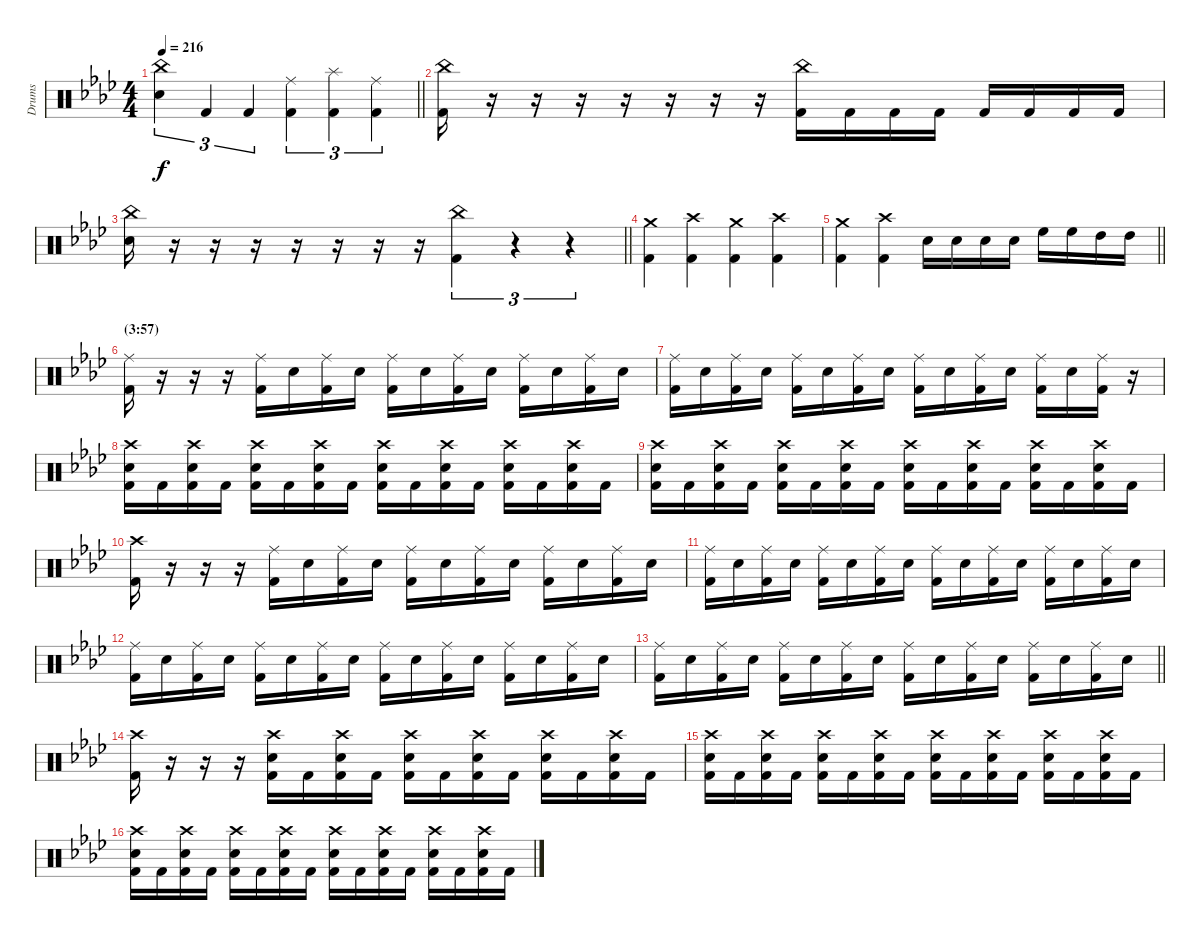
\bracketExtendMode groupsimilarinstruments
\otherSystemsTrackNameOrientation horizontal
\track ("Guyot Begin-Benoit" "Drums") {instrument percussion}
\staff {score}
\articulation defaults
\ts (4 4)
\tempo 216
\clef neutral
\barLineRight lightlight
\ks ab
("China (hit)"{acc forcenatural} "Snare (hit) 2"{acc forcenatural}).4{tu (3 2) dy f beam Down} "Kick (hit) 2"{acc forcenatural}.4{tu (3 2) beam Up} "Kick (hit) 2"{acc forcenatural}.4{tu (3 2) beam Up} ("Ride (middle)"{acc forcenatural} "Kick (hit) 2"{acc forcenatural}).4{tu (3 2) beam Down} ("Splash (hit)"{acc forcenatural} "Kick (hit) 2"{acc forcenatural}).4{tu (3 2) beam Down} ("Ride (middle)"{acc forcenatural} "Kick (hit) 2"{acc forcenatural}).4{tu (3 2) beam Down} |
("China (hit)"{acc forcenatural} "Kick (hit) 2"{acc forcenatural}).16{beam Down} r.16{beam Down} r.16{beam Down} r.16{beam Down} r.16{beam Down} r.16{beam Down} r.16{beam Down} r.16{beam Down} ("China (hit)"{acc forcenatural} "Kick (hit) 2"{acc forcenatural}).16{beam Down} "Kick (hit) 2"{acc forcenatural}.16{beam Down} "Kick (hit) 2"{acc forcenatural}.16{beam Down} "Kick (hit) 2"{acc forcenatural}.16{beam Down} "Kick (hit) 2"{acc forcenatural}.16{beam Up} "Kick (hit) 2"{acc forcenatural}.16{beam Up} "Kick (hit) 2"{acc forcenatural}.16{beam Up} "Kick (hit) 2"{acc forcenatural}.16{beam Up} |
\barLineRight lightlight
("China (hit)"{acc forcenatural} "Snare (hit) 2"{acc forcenatural}).16{beam Down} r.16{beam Down} r.16{beam Down} r.16{beam Down} r.16{beam Down} r.16{beam Down} r.16{beam Down} r.16{beam Down} ("China (hit)"{acc forcenatural} "Kick (hit) 2"{acc forcenatural}).4{tu (3 2) beam Down} r.4{tu (3 2) beam Down} r.4{tu (3 2) beam Down} |
("Crash medium (hit)"{acc forcenatural} "Kick (hit) 2"{acc forcenatural}).4{beam Down} ("Crash high (hit)"{acc forcenatural} "Kick (hit) 2"{acc forcenatural}).4{beam Down} ("Crash medium (hit)"{acc forcenatural} "Kick (hit) 2"{acc forcenatural}).4{beam Down} ("Crash high (hit)"{acc forcenatural} "Kick (hit) 2"{acc forcenatural}).4{beam Down} |
\barLineRight lightlight
("Crash medium (hit)"{acc forcenatural} "Kick (hit) 2"{acc forcenatural}).4{beam Down} ("Crash high (hit)"{acc forcenatural} "Kick (hit) 2"{acc forcenatural}).4{beam Down} "Snare (hit) 2"{acc forcenatural}.16{beam Down} "Snare (hit) 2"{acc forcenatural}.16{beam Down} "Snare (hit) 2"{acc forcenatural}.16{beam Down} "Snare (hit) 2"{acc forcenatural}.16{beam Down} "High Floor Tom (hit)"{acc forcenatural}.16{beam Down} "High Floor Tom (hit)"{acc forcenatural}.16{beam Down} "High Tom (hit)"{acc forcenatural}.16{beam Down} "High Tom (hit)"{acc forcenatural}.16{beam Down} |
\section ("" "(3:57)")
("Ride (middle)"{acc forcenatural} "Kick (hit) 2"{acc forcenatural}).16{beam Down} r.16{beam Down} r.16{beam Down} r.16{beam Down} ("Ride (middle)"{acc forcenatural} "Kick (hit) 2"{acc forcenatural}).16{beam Down} "Snare (hit) 2"{acc forcenatural}.16{beam Down} ("Ride (middle)"{acc forcenatural} "Kick (hit) 2"{acc forcenatural}).16{beam Down} "Snare (hit) 2"{acc forcenatural}.16{beam Down} ("Ride (middle)"{acc forcenatural} "Kick (hit) 2"{acc forcenatural}).16{beam Down} "Snare (hit) 2"{acc forcenatural}.16{beam Down} ("Ride (middle)"{acc forcenatural} "Kick (hit) 2"{acc forcenatural}).16{beam Down} "Snare (hit) 2"{acc forcenatural}.16{beam Down} ("Ride (middle)"{acc forcenatural} "Kick (hit) 2"{acc forcenatural}).16{beam Down} "Snare (hit) 2"{acc forcenatural}.16{beam Down} ("Ride (middle)"{acc forcenatural} "Kick (hit) 2"{acc forcenatural}).16{beam Down} "Snare (hit) 2"{acc forcenatural}.16{beam Down} |
("Ride (middle)"{acc forcenatural} "Kick (hit) 2"{acc forcenatural}).16{beam Down} "Snare (hit) 2"{acc forcenatural}.16{beam Down} ("Ride (middle)"{acc forcenatural} "Kick (hit) 2"{acc forcenatural}).16{beam Down} "Snare (hit) 2"{acc forcenatural}.16{beam Down} ("Ride (middle)"{acc forcenatural} "Kick (hit) 2"{acc forcenatural}).16{beam Down} "Snare (hit) 2"{acc forcenatural}.16{beam Down} ("Ride (middle)"{acc forcenatural} "Kick (hit) 2"{acc forcenatural}).16{beam Down} "Snare (hit) 2"{acc forcenatural}.16{beam Down} ("Ride (middle)"{acc forcenatural} "Kick (hit) 2"{acc forcenatural}).16{beam Down} "Snare (hit) 2"{acc forcenatural}.16{beam Down} ("Ride (middle)"{acc forcenatural} "Kick (hit) 2"{acc forcenatural}).16{beam Down} "Snare (hit) 2"{acc forcenatural}.16{beam Down} ("Ride (middle)"{acc forcenatural} "Kick (hit) 2"{acc forcenatural}).16{beam Down} "Snare (hit) 2"{acc forcenatural}.16{beam Down} ("Ride (middle)"{acc forcenatural} "Kick (hit) 2"{acc forcenatural}).16{beam Down} r.16{beam Down} |
("Crash high (hit)"{acc forcenatural} "Snare (hit) 2"{acc forcenatural} "Kick (hit) 2"{acc forcenatural}).16{beam Down} "Kick (hit) 2"{acc forcenatural}.16{beam Down} ("Crash high (hit)"{acc forcenatural} "Snare (hit) 2"{acc forcenatural} "Kick (hit) 2"{acc forcenatural}).16{beam Down} "Kick (hit) 2"{acc forcenatural}.16{beam Down} ("Crash high (hit)"{acc forcenatural} "Snare (hit) 2"{acc forcenatural} "Kick (hit) 2"{acc forcenatural}).16{beam Down} "Kick (hit) 2"{acc forcenatural}.16{beam Down} ("Crash high (hit)"{acc forcenatural} "Snare (hit) 2"{acc forcenatural} "Kick (hit) 2"{acc forcenatural}).16{beam Down} "Kick (hit) 2"{acc forcenatural}.16{beam Down} ("Crash high (hit)"{acc forcenatural} "Snare (hit) 2"{acc forcenatural} "Kick (hit) 2"{acc forcenatural}).16{beam Down} "Kick (hit) 2"{acc forcenatural}.16{beam Down} ("Crash high (hit)"{acc forcenatural} "Snare (hit) 2"{acc forcenatural} "Kick (hit) 2"{acc forcenatural}).16{beam Down} "Kick (hit) 2"{acc forcenatural}.16{beam Down} ("Crash high (hit)"{acc forcenatural} "Snare (hit) 2"{acc forcenatural} "Kick (hit) 2"{acc forcenatural}).16{beam Down} "Kick (hit) 2"{acc forcenatural}.16{beam Down} ("Crash high (hit)"{acc forcenatural} "Snare (hit) 2"{acc forcenatural} "Kick (hit) 2"{acc forcenatural}).16{beam Down} "Kick (hit) 2"{acc forcenatural}.16{beam Down} |
("Crash high (hit)"{acc forcenatural} "Snare (hit) 2"{acc forcenatural} "Kick (hit) 2"{acc forcenatural}).16{beam Down} "Kick (hit) 2"{acc forcenatural}.16{beam Down} ("Crash high (hit)"{acc forcenatural} "Snare (hit) 2"{acc forcenatural} "Kick (hit) 2"{acc forcenatural}).16{beam Down} "Kick (hit) 2"{acc forcenatural}.16{beam Down} ("Crash high (hit)"{acc forcenatural} "Snare (hit) 2"{acc forcenatural} "Kick (hit) 2"{acc forcenatural}).16{beam Down} "Kick (hit) 2"{acc forcenatural}.16{beam Down} ("Crash high (hit)"{acc forcenatural} "Snare (hit) 2"{acc forcenatural} "Kick (hit) 2"{acc forcenatural}).16{beam Down} "Kick (hit) 2"{acc forcenatural}.16{beam Down} ("Crash high (hit)"{acc forcenatural} "Snare (hit) 2"{acc forcenatural} "Kick (hit) 2"{acc forcenatural}).16{beam Down} "Kick (hit) 2"{acc forcenatural}.16{beam Down} ("Crash high (hit)"{acc forcenatural} "Snare (hit) 2"{acc forcenatural} "Kick (hit) 2"{acc forcenatural}).16{beam Down} "Kick (hit) 2"{acc forcenatural}.16{beam Down} ("Crash high (hit)"{acc forcenatural} "Snare (hit) 2"{acc forcenatural} "Kick (hit) 2"{acc forcenatural}).16{beam Down} "Kick (hit) 2"{acc forcenatural}.16{beam Down} ("Crash high (hit)"{acc forcenatural} "Snare (hit) 2"{acc forcenatural} "Kick (hit) 2"{acc forcenatural}).16{beam Down} "Kick (hit) 2"{acc forcenatural}.16{beam Down} |
("Crash high (hit)"{acc forcenatural} "Kick (hit) 2"{acc forcenatural}).16{beam Down} r.16{beam Down} r.16{beam Down} r.16{beam Down} ("Ride (middle)"{acc forcenatural} "Kick (hit) 2"{acc forcenatural}).16{beam Down} "Snare (hit) 2"{acc forcenatural}.16{beam Down} ("Ride (middle)"{acc forcenatural} "Kick (hit) 2"{acc forcenatural}).16{beam Down} "Snare (hit) 2"{acc forcenatural}.16{beam Down} ("Ride (middle)"{acc forcenatural} "Kick (hit) 2"{acc forcenatural}).16{beam Down} "Snare (hit) 2"{acc forcenatural}.16{beam Down} ("Ride (middle)"{acc forcenatural} "Kick (hit) 2"{acc forcenatural}).16{beam Down} "Snare (hit) 2"{acc forcenatural}.16{beam Down} ("Ride (middle)"{acc forcenatural} "Kick (hit) 2"{acc forcenatural}).16{beam Down} "Snare (hit) 2"{acc forcenatural}.16{beam Down} ("Ride (middle)"{acc forcenatural} "Kick (hit) 2"{acc forcenatural}).16{beam Down} "Snare (hit) 2"{acc forcenatural}.16{beam Down} |
("Ride (middle)"{acc forcenatural} "Kick (hit) 2"{acc forcenatural}).16{beam Down} "Snare (hit) 2"{acc forcenatural}.16{beam Down} ("Ride (middle)"{acc forcenatural} "Kick (hit) 2"{acc forcenatural}).16{beam Down} "Snare (hit) 2"{acc forcenatural}.16{beam Down} ("Ride (middle)"{acc forcenatural} "Kick (hit) 2"{acc forcenatural}).16{beam Down} "Snare (hit) 2"{acc forcenatural}.16{beam Down} ("Ride (middle)"{acc forcenatural} "Kick (hit) 2"{acc forcenatural}).16{beam Down} "Snare (hit) 2"{acc forcenatural}.16{beam Down} ("Ride (middle)"{acc forcenatural} "Kick (hit) 2"{acc forcenatural}).16{beam Down} "Snare (hit) 2"{acc forcenatural}.16{beam Down} ("Ride (middle)"{acc forcenatural} "Kick (hit) 2"{acc forcenatural}).16{beam Down} "Snare (hit) 2"{acc forcenatural}.16{beam Down} ("Ride (middle)"{acc forcenatural} "Kick (hit) 2"{acc forcenatural}).16{beam Down} "Snare (hit) 2"{acc forcenatural}.16{beam Down} ("Ride (middle)"{acc forcenatural} "Kick (hit) 2"{acc forcenatural}).16{beam Down} "Snare (hit) 2"{acc forcenatural}.16{beam Down} |
("Ride (middle)"{acc forcenatural} "Kick (hit) 2"{acc forcenatural}).16{beam Down} "Snare (hit) 2"{acc forcenatural}.16{beam Down} ("Ride (middle)"{acc forcenatural} "Kick (hit) 2"{acc forcenatural}).16{beam Down} "Snare (hit) 2"{acc forcenatural}.16{beam Down} ("Ride (middle)"{acc forcenatural} "Kick (hit) 2"{acc forcenatural}).16{beam Down} "Snare (hit) 2"{acc forcenatural}.16{beam Down} ("Ride (middle)"{acc forcenatural} "Kick (hit) 2"{acc forcenatural}).16{beam Down} "Snare (hit) 2"{acc forcenatural}.16{beam Down} ("Ride (middle)"{acc forcenatural} "Kick (hit) 2"{acc forcenatural}).16{beam Down} "Snare (hit) 2"{acc forcenatural}.16{beam Down} ("Ride (middle)"{acc forcenatural} "Kick (hit) 2"{acc forcenatural}).16{beam Down} "Snare (hit) 2"{acc forcenatural}.16{beam Down} ("Ride (middle)"{acc forcenatural} "Kick (hit) 2"{acc forcenatural}).16{beam Down} "Snare (hit) 2"{acc forcenatural}.16{beam Down} ("Ride (middle)"{acc forcenatural} "Kick (hit) 2"{acc forcenatural}).16{beam Down} "Snare (hit) 2"{acc forcenatural}.16{beam Down} |
\barLineRight lightlight
("Ride (middle)"{acc forcenatural} "Kick (hit) 2"{acc forcenatural}).16{beam Down} "Snare (hit) 2"{acc forcenatural}.16{beam Down} ("Ride (middle)"{acc forcenatural} "Kick (hit) 2"{acc forcenatural}).16{beam Down} "Snare (hit) 2"{acc forcenatural}.16{beam Down} ("Ride (middle)"{acc forcenatural} "Kick (hit) 2"{acc forcenatural}).16{beam Down} "Snare (hit) 2"{acc forcenatural}.16{beam Down} ("Ride (middle)"{acc forcenatural} "Kick (hit) 2"{acc forcenatural}).16{beam Down} "Snare (hit) 2"{acc forcenatural}.16{beam Down} ("Ride (middle)"{acc forcenatural} "Kick (hit) 2"{acc forcenatural}).16{beam Down} "Snare (hit) 2"{acc forcenatural}.16{beam Down} ("Ride (middle)"{acc forcenatural} "Kick (hit) 2"{acc forcenatural}).16{beam Down} "Snare (hit) 2"{acc forcenatural}.16{beam Down} ("Ride (middle)"{acc forcenatural} "Kick (hit) 2"{acc forcenatural}).16{beam Down} "Snare (hit) 2"{acc forcenatural}.16{beam Down} ("Ride (middle)"{acc forcenatural} "Kick (hit) 2"{acc forcenatural}).16{beam Down} "Snare (hit) 2"{acc forcenatural}.16{beam Down} |
\section ("" "")
("Crash high (hit)"{acc forcenatural} "Kick (hit) 2"{acc forcenatural}).16{beam Down} r.16{beam Down} r.16{beam Down} r.16{beam Down} ("Crash high (hit)"{acc forcenatural} "Snare (hit) 2"{acc forcenatural} "Kick (hit) 2"{acc forcenatural}).16{beam Down} "Kick (hit) 2"{acc forcenatural}.16{beam Down} ("Crash high (hit)"{acc forcenatural} "Snare (hit) 2"{acc forcenatural} "Kick (hit) 2"{acc forcenatural}).16{beam Down} "Kick (hit) 2"{acc forcenatural}.16{beam Down} ("Crash high (hit)"{acc forcenatural} "Snare (hit) 2"{acc forcenatural} "Kick (hit) 2"{acc forcenatural}).16{beam Down} "Kick (hit) 2"{acc forcenatural}.16{beam Down} ("Crash high (hit)"{acc forcenatural} "Snare (hit) 2"{acc forcenatural} "Kick (hit) 2"{acc forcenatural}).16{beam Down} "Kick (hit) 2"{acc forcenatural}.16{beam Down} ("Crash high (hit)"{acc forcenatural} "Snare (hit) 2"{acc forcenatural} "Kick (hit) 2"{acc forcenatural}).16{beam Down} "Kick (hit) 2"{acc forcenatural}.16{beam Down} ("Crash high (hit)"{acc forcenatural} "Snare (hit) 2"{acc forcenatural} "Kick (hit) 2"{acc forcenatural}).16{beam Down} "Kick (hit) 2"{acc forcenatural}.16{beam Down} |
("Crash high (hit)"{acc forcenatural} "Snare (hit) 2"{acc forcenatural} "Kick (hit) 2"{acc forcenatural}).16{beam Down} "Kick (hit) 2"{acc forcenatural}.16{beam Down} ("Crash high (hit)"{acc forcenatural} "Snare (hit) 2"{acc forcenatural} "Kick (hit) 2"{acc forcenatural}).16{beam Down} "Kick (hit) 2"{acc forcenatural}.16{beam Down} ("Crash high (hit)"{acc forcenatural} "Snare (hit) 2"{acc forcenatural} "Kick (hit) 2"{acc forcenatural}).16{beam Down} "Kick (hit) 2"{acc forcenatural}.16{beam Down} ("Crash high (hit)"{acc forcenatural} "Snare (hit) 2"{acc forcenatural} "Kick (hit) 2"{acc forcenatural}).16{beam Down} "Kick (hit) 2"{acc forcenatural}.16{beam Down} ("Crash high (hit)"{acc forcenatural} "Snare (hit) 2"{acc forcenatural} "Kick (hit) 2"{acc forcenatural}).16{beam Down} "Kick (hit) 2"{acc forcenatural}.16{beam Down} ("Crash high (hit)"{acc forcenatural} "Snare (hit) 2"{acc forcenatural} "Kick (hit) 2"{acc forcenatural}).16{beam Down} "Kick (hit) 2"{acc forcenatural}.16{beam Down} ("Crash high (hit)"{acc forcenatural} "Snare (hit) 2"{acc forcenatural} "Kick (hit) 2"{acc forcenatural}).16{beam Down} "Kick (hit) 2"{acc forcenatural}.16{beam Down} ("Crash high (hit)"{acc forcenatural} "Snare (hit) 2"{acc forcenatural} "Kick (hit) 2"{acc forcenatural}).16{beam Down} "Kick (hit) 2"{acc forcenatural}.16{beam Down} |
("Crash high (hit)"{acc forcenatural} "Snare (hit) 2"{acc forcenatural} "Kick (hit) 2"{acc forcenatural}).16{beam Down} "Kick (hit) 2"{acc forcenatural}.16{beam Down} ("Crash high (hit)"{acc forcenatural} "Snare (hit) 2"{acc forcenatural} "Kick (hit) 2"{acc forcenatural}).16{beam Down} "Kick (hit) 2"{acc forcenatural}.16{beam Down} ("Crash high (hit)"{acc forcenatural} "Snare (hit) 2"{acc forcenatural} "Kick (hit) 2"{acc forcenatural}).16{beam Down} "Kick (hit) 2"{acc forcenatural}.16{beam Down} ("Crash high (hit)"{acc forcenatural} "Snare (hit) 2"{acc forcenatural} "Kick (hit) 2"{acc forcenatural}).16{beam Down} "Kick (hit) 2"{acc forcenatural}.16{beam Down} ("Crash high (hit)"{acc forcenatural} "Snare (hit) 2"{acc forcenatural} "Kick (hit) 2"{acc forcenatural}).16{beam Down} "Kick (hit) 2"{acc forcenatural}.16{beam Down} ("Crash high (hit)"{acc forcenatural} "Snare (hit) 2"{acc forcenatural} "Kick (hit) 2"{acc forcenatural}).16{beam Down} "Kick (hit) 2"{acc forcenatural}.16{beam Down} ("Crash high (hit)"{acc forcenatural} "Snare (hit) 2"{acc forcenatural} "Kick (hit) 2"{acc forcenatural}).16{beam Down} "Kick (hit) 2"{acc forcenatural}.16{beam Down} ("Crash high (hit)"{acc forcenatural} "Snare (hit) 2"{acc forcenatural} "Kick (hit) 2"{acc forcenatural}).16{beam Down} "Kick (hit) 2"{acc forcenatural}.16{beam Down}
